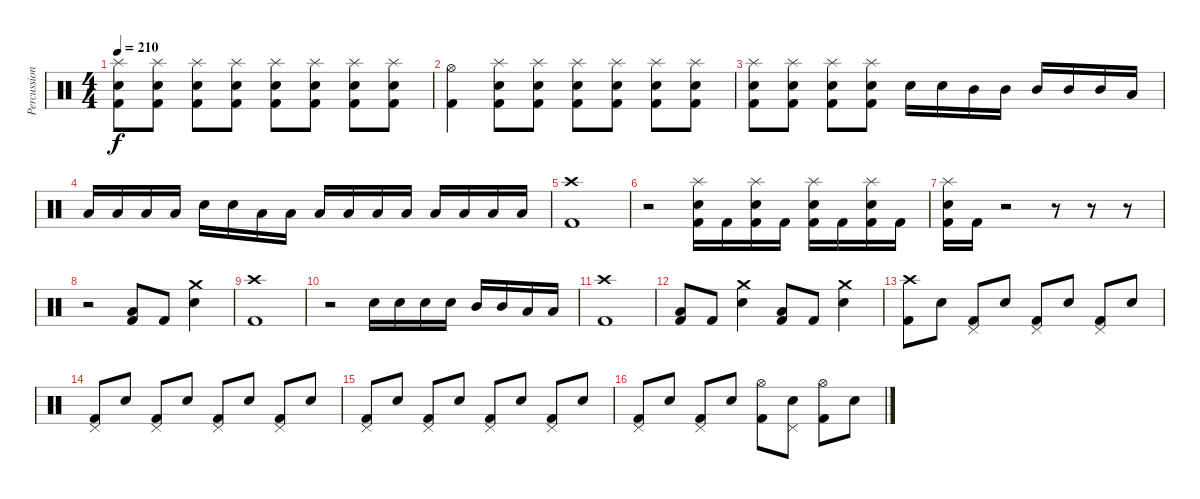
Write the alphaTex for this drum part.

\track ("Percussion" "Percussion") {instrument percussion}
\staff {score}
\articulation defaults
\ts (4 4)
\tempo 210
\clef neutral
\ks c
("Splash (hit)" "Snare (hit) 2" "Kick (hit) 2").8{dy f} ("Splash (hit)" "Snare (hit) 2" "Kick (hit) 2").8 ("Splash (hit)" "Snare (hit) 2" "Kick (hit) 2").8 ("Splash (hit)" "Snare (hit) 2" "Kick (hit) 2").8 ("Splash (hit)" "Snare (hit) 2" "Kick (hit) 2").8 ("Splash (hit)" "Snare (hit) 2" "Kick (hit) 2").8 ("Splash (hit)" "Snare (hit) 2" "Kick (hit) 2").8 ("Splash (hit)" "Snare (hit) 2" "Kick (hit) 2").8 |
("Hi-Hat (open)" "Kick (hit) 2").4 ("Splash (hit)" "Snare (hit) 2" "Kick (hit) 2").8 ("Splash (hit)" "Snare (hit) 2" "Kick (hit) 2").8 ("Splash (hit)" "Snare (hit) 2" "Kick (hit) 2").8 ("Splash (hit)" "Snare (hit) 2" "Kick (hit) 2").8 ("Splash (hit)" "Snare (hit) 2" "Kick (hit) 2").8 ("Splash (hit)" "Snare (hit) 2" "Kick (hit) 2").8 |
("Splash (hit)" "Snare (hit) 2" "Kick (hit) 2").8 ("Splash (hit)" "Snare (hit) 2" "Kick (hit) 2").8 ("Splash (hit)" "Snare (hit) 2" "Kick (hit) 2").8 ("Splash (hit)" "Snare (hit) 2" "Kick (hit) 2").8 "Snare (hit) 2".16 "Snare (hit) 2".16 "Mid Tom (hit)".16 "Mid Tom (hit)".16 "Mid Tom (hit)".16 "Mid Tom (hit)".16 "Mid Tom (hit)".16 "Low Tom (hit)".16 |
"Low Tom (hit)".16 "Low Tom (hit)".16 "Low Tom (hit)".16 "Low Tom (hit)".16 "Snare (hit) 2".16 "Snare (hit) 2".16 "Low Tom (hit)".16 "Low Tom (hit)".16 "Low Tom (hit)".16 "Low Tom (hit)".16 "Low Tom (hit)".16 "Low Floor Tom (hit)".16 "Low Floor Tom (hit)".16 "Low Floor Tom (hit)".16 "Low Floor Tom (hit)".16 "Low Floor Tom (hit)".16 |
("Crash high (hit)" "Kick (hit) 2").1 |
r.2 ("Splash (hit)" "Snare (hit) 2" "Kick (hit) 2").16 "Kick (hit) 2".16 ("Splash (hit)" "Snare (hit) 2" "Kick (hit) 2").16 "Kick (hit) 2".16 ("Splash (hit)" "Snare (hit) 2" "Kick (hit) 2").16 "Kick (hit) 2".16 ("Splash (hit)" "Snare (hit) 2" "Kick (hit) 2").16 "Kick (hit) 2".16 |
("Splash (hit)" "Snare (hit) 2" "Kick (hit) 2").16 "Kick (hit) 2".16 r.2 r.8 r.8 r.8 |
r.2 ("Low Floor Tom (hit)" "Kick (hit) 2").8 "Kick (hit) 2".8 ("Crash medium (hit)" "Snare (hit) 2").4 |
("Crash high (hit)" "Kick (hit) 2").1 |
r.2 "Snare (hit) 2".16 "Snare (hit) 2".16 "Snare (hit) 2".16 "Snare (hit) 2".16 "Mid Tom (hit)".16 "Mid Tom (hit)".16 "Low Tom (hit)".16 "Low Tom (hit)".16 |
("Crash high (hit)" "Kick (hit) 2").1{volume 0} |
("Low Floor Tom (hit)" "Kick (hit) 2").8{volume 14} "Kick (hit) 2".8 ("Crash medium (hit)" "Snare (hit) 2").4 ("Low Floor Tom (hit)" "Kick (hit) 2").8 "Kick (hit) 2".8 ("Crash medium (hit)" "Snare (hit) 2").4 |
("Crash high (hit)" "Kick (hit) 2").8 "Snare (hit) 2".8 ("Pedal Hi-Hat (hit)" "Kick (hit) 2").8 "Snare (hit) 2".8 ("Pedal Hi-Hat (hit)" "Kick (hit) 2").8 "Snare (hit) 2".8 ("Pedal Hi-Hat (hit)" "Kick (hit) 2").8 "Snare (hit) 2".8 |
("Pedal Hi-Hat (hit)" "Kick (hit) 2").8 "Snare (hit) 2".8 ("Pedal Hi-Hat (hit)" "Kick (hit) 2").8 "Snare (hit) 2".8 ("Pedal Hi-Hat (hit)" "Kick (hit) 2").8 "Snare (hit) 2".8 ("Pedal Hi-Hat (hit)" "Kick (hit) 2").8 "Snare (hit) 2".8 |
("Pedal Hi-Hat (hit)" "Kick (hit) 2").8 "Snare (hit) 2".8 ("Pedal Hi-Hat (hit)" "Kick (hit) 2").8 "Snare (hit) 2".8 ("Pedal Hi-Hat (hit)" "Kick (hit) 2").8 "Snare (hit) 2".8 ("Pedal Hi-Hat (hit)" "Kick (hit) 2").8 "Snare (hit) 2".8 |
("Pedal Hi-Hat (hit)" "Kick (hit) 2").8 "Snare (hit) 2".8 ("Pedal Hi-Hat (hit)" "Kick (hit) 2").8 "Snare (hit) 2".8 ("Hi-Hat (open)" "Kick (hit) 2").8 ("Pedal Hi-Hat (hit)" "Snare (hit) 2").8 ("Hi-Hat (open)" "Kick (hit) 2").8 "Snare (hit) 2".8
